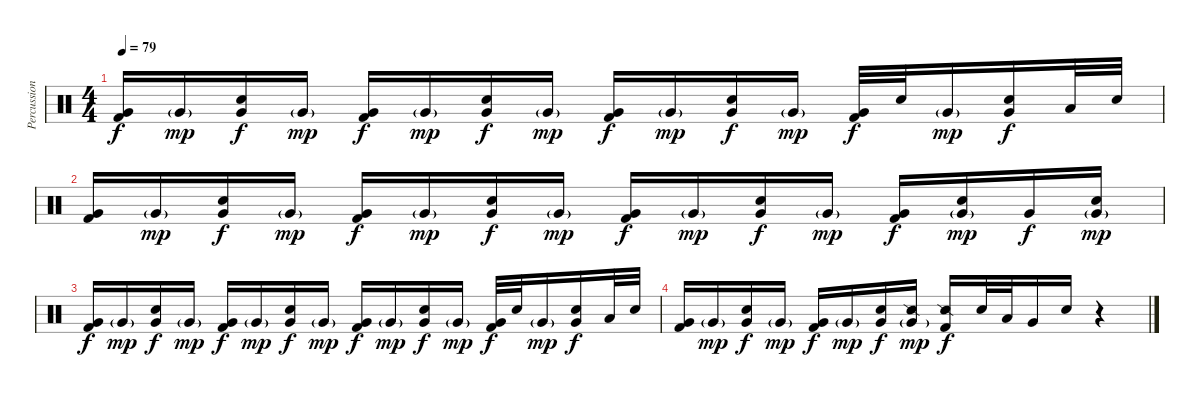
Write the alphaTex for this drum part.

\track ("Percussion" "Percussion") {instrument percussion}
\staff {score}
\articulation defaults
\ts (4 4)
\tempo 79
\clef neutral
\ks c
("Very Low Tom (hit)" "Kick (hit) 2").16{dy f} "Very Low Tom (hit)"{g}.16{dy mp} ("Snare (hit) 2" "Very Low Tom (hit)").16{dy f} "Very Low Tom (hit)"{g}.16{dy mp} ("Very Low Tom (hit)" "Kick (hit) 2").16{dy f} "Very Low Tom (hit)"{g}.16{dy mp} ("Snare (hit) 2" "Very Low Tom (hit)").16{dy f} "Very Low Tom (hit)"{g}.16{dy mp} ("Very Low Tom (hit)" "Kick (hit) 2").16{dy f} "Very Low Tom (hit)"{g}.16{dy mp} ("Snare (hit) 2" "Very Low Tom (hit)").16{dy f} "Very Low Tom (hit)"{g}.16{dy mp} ("Very Low Tom (hit)" "Kick (hit) 2").32{dy f} "Snare (hit) 2".32 "Very Low Tom (hit)"{g}.16{dy mp} ("Snare (hit) 2" "Very Low Tom (hit)").16{dy f} "Low Tom (hit)".32 "Snare (hit) 2".32 |
("Very Low Tom (hit)" "Kick (hit) 2").16 "Very Low Tom (hit)"{g}.16{dy mp} ("Snare (hit) 2" "Very Low Tom (hit)").16{dy f} "Very Low Tom (hit)"{g}.16{dy mp} ("Very Low Tom (hit)" "Kick (hit) 2").16{dy f} "Very Low Tom (hit)"{g}.16{dy mp} ("Snare (hit) 2" "Very Low Tom (hit)").16{dy f} "Very Low Tom (hit)"{g}.16{dy mp} ("Very Low Tom (hit)" "Kick (hit) 2").16{dy f} "Very Low Tom (hit)"{g}.16{dy mp} ("Snare (hit) 2" "Very Low Tom (hit)").16{dy f} "Very Low Tom (hit)"{g}.16{dy mp} ("Very Low Tom (hit)" "Kick (hit) 2").16{dy f} ("Snare (hit) 2" "Very Low Tom (hit)"{g}).16{dy mp} "Very Low Tom (hit)".16{dy f} ("Snare (hit) 2" "Very Low Tom (hit)"{g}).16{dy mp} |
("Very Low Tom (hit)" "Kick (hit) 2").16{dy f} "Very Low Tom (hit)"{g}.16{dy mp} ("Snare (hit) 2" "Very Low Tom (hit)").16{dy f} "Very Low Tom (hit)"{g}.16{dy mp} ("Very Low Tom (hit)" "Kick (hit) 2").16{dy f} "Very Low Tom (hit)"{g}.16{dy mp} ("Snare (hit) 2" "Very Low Tom (hit)").16{dy f} "Very Low Tom (hit)"{g}.16{dy mp} ("Very Low Tom (hit)" "Kick (hit) 2").16{dy f} "Very Low Tom (hit)"{g}.16{dy mp} ("Snare (hit) 2" "Very Low Tom (hit)").16{dy f} "Very Low Tom (hit)"{g}.16{dy mp} ("Very Low Tom (hit)" "Kick (hit) 2").32{dy f} "Snare (hit) 2".32 "Very Low Tom (hit)"{g}.16{dy mp} ("Snare (hit) 2" "Very Low Tom (hit)").16{dy f} "Low Tom (hit)".32 "Snare (hit) 2".32 |
("Very Low Tom (hit)" "Kick (hit) 2").16 "Very Low Tom (hit)"{g}.16{dy mp} ("Snare (hit) 2" "Very Low Tom (hit)").16{dy f} "Very Low Tom (hit)"{g}.16{dy mp} ("Very Low Tom (hit)" "Kick (hit) 2").16{dy f} "Very Low Tom (hit)"{g}.16{dy mp} ("Snare (hit) 2" "Very Low Tom (hit)").16{dy f} ("Snare (side stick) 2" "Very Low Tom (hit)"{g}).16{dy mp} ("Snare (side stick) 2" "Kick (hit) 2").16{dy f} "Snare (hit) 2".32 "Low Tom (hit)".32 "Very Low Tom (hit)".16 "Snare (hit) 2".16 r.4
